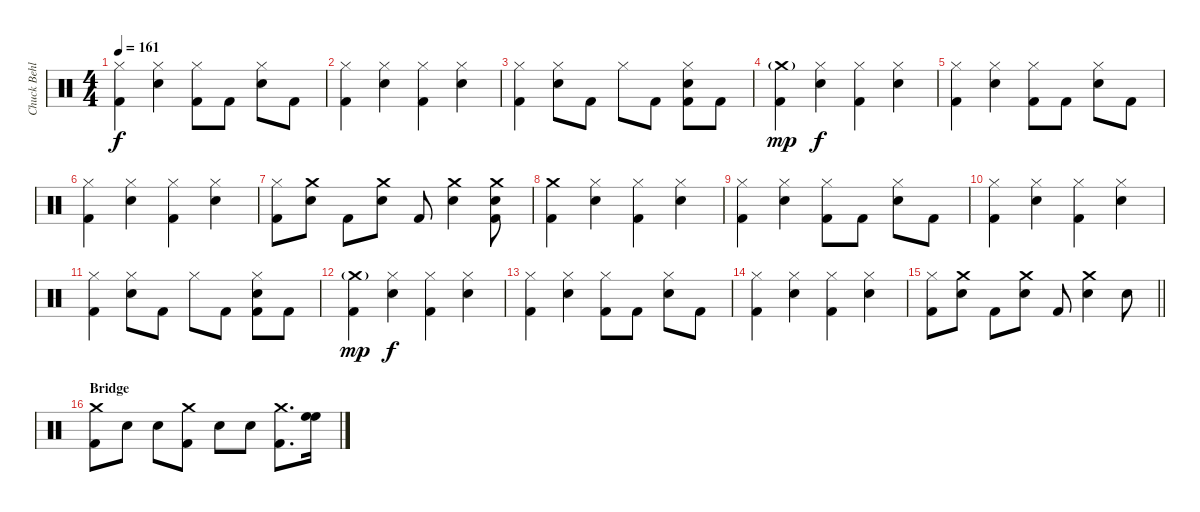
\track ("Chuck Behler" "Chuck Behl") {instrument percussion}
\staff {score}
\articulation defaults
\ts (4 4)
\tempo 161
\clef neutral
\ks c
("Hi-Hat (closed)" "Kick (hit) 2").4{dy f} ("Hi-Hat (closed)" "Snare (hit) 2").4 ("Hi-Hat (closed)" "Kick (hit) 2").8 "Kick (hit) 2".8 ("Hi-Hat (closed)" "Snare (hit) 2").8 "Kick (hit) 2".8 |
("Hi-Hat (closed)" "Kick (hit) 2").4 ("Hi-Hat (closed)" "Snare (hit) 2").4 ("Hi-Hat (closed)" "Kick (hit) 2").4 ("Hi-Hat (closed)" "Snare (hit) 2").4 |
("Hi-Hat (closed)" "Kick (hit) 2").4 ("Hi-Hat (closed)" "Snare (hit) 2").8 "Kick (hit) 2".8 "Hi-Hat (closed)".8 "Kick (hit) 2".8 ("Hi-Hat (closed)" "Snare (hit) 2" "Kick (hit) 2").8 "Kick (hit) 2".8 |
("Crash medium (hit)"{g} "Kick (hit) 2").4{dy mp} ("Hi-Hat (closed)" "Snare (hit) 2").4{dy f} ("Hi-Hat (closed)" "Kick (hit) 2").4 ("Hi-Hat (closed)" "Snare (hit) 2").4 |
("Hi-Hat (closed)" "Kick (hit) 2").4 ("Hi-Hat (closed)" "Snare (hit) 2").4 ("Hi-Hat (closed)" "Kick (hit) 2").8 "Kick (hit) 2".8 ("Hi-Hat (closed)" "Snare (hit) 2").8 "Kick (hit) 2".8 |
("Hi-Hat (closed)" "Kick (hit) 2").4 ("Hi-Hat (closed)" "Snare (hit) 2").4 ("Hi-Hat (closed)" "Kick (hit) 2").4 ("Hi-Hat (closed)" "Snare (hit) 2").4 |
("Hi-Hat (closed)" "Kick (hit) 2").8 ("Crash medium (hit)" "Snare (hit) 2").8 "Kick (hit) 2".8 ("Crash medium (hit)" "Snare (hit) 2").8 "Kick (hit) 2".8 ("Crash medium (hit)" "Snare (hit) 2").4 ("Crash medium (hit)" "Snare (hit) 2" "Kick (hit) 2").8 |
("Crash medium (hit)" "Kick (hit) 2").4 ("Hi-Hat (closed)" "Snare (hit) 2").4 ("Hi-Hat (closed)" "Kick (hit) 2").4 ("Hi-Hat (closed)" "Snare (hit) 2").4 |
("Hi-Hat (closed)" "Kick (hit) 2").4 ("Hi-Hat (closed)" "Snare (hit) 2").4 ("Hi-Hat (closed)" "Kick (hit) 2").8 "Kick (hit) 2".8 ("Hi-Hat (closed)" "Snare (hit) 2").8 "Kick (hit) 2".8 |
("Hi-Hat (closed)" "Kick (hit) 2").4 ("Hi-Hat (closed)" "Snare (hit) 2").4 ("Hi-Hat (closed)" "Kick (hit) 2").4 ("Hi-Hat (closed)" "Snare (hit) 2").4 |
("Hi-Hat (closed)" "Kick (hit) 2").4 ("Hi-Hat (closed)" "Snare (hit) 2").8 "Kick (hit) 2".8 "Hi-Hat (closed)".8 "Kick (hit) 2".8 ("Hi-Hat (closed)" "Snare (hit) 2" "Kick (hit) 2").8 "Kick (hit) 2".8 |
("Crash medium (hit)"{g} "Kick (hit) 2").4{dy mp} ("Hi-Hat (closed)" "Snare (hit) 2").4{dy f} ("Hi-Hat (closed)" "Kick (hit) 2").4 ("Hi-Hat (closed)" "Snare (hit) 2").4 |
("Hi-Hat (closed)" "Kick (hit) 2").4 ("Hi-Hat (closed)" "Snare (hit) 2").4 ("Hi-Hat (closed)" "Kick (hit) 2").8 "Kick (hit) 2".8 ("Hi-Hat (closed)" "Snare (hit) 2").8 "Kick (hit) 2".8 |
("Hi-Hat (closed)" "Kick (hit) 2").4 ("Hi-Hat (closed)" "Snare (hit) 2").4 ("Hi-Hat (closed)" "Kick (hit) 2").4 ("Hi-Hat (closed)" "Snare (hit) 2").4 |
\barLineRight lightlight
("Hi-Hat (closed)" "Kick (hit) 2").8 ("Crash medium (hit)" "Snare (hit) 2").8 "Kick (hit) 2".8 ("Crash medium (hit)" "Snare (hit) 2").8 "Kick (hit) 2".8 ("Crash medium (hit)" "Snare (hit) 2").4 "Snare (hit) 2".8 |
\section ("" "Bridge")
("Crash medium (hit)" "Kick (hit) 2").8 "Snare (hit) 2".8 "Snare (hit) 2".8 ("Crash medium (hit)" "Kick (hit) 2").8 "Snare (hit) 2".8 "Snare (hit) 2".8 ("Crash medium (hit)" "Kick (hit) 2").8{d} ("High Floor Tom (hit)" "High Floor Tom (hit)").16
